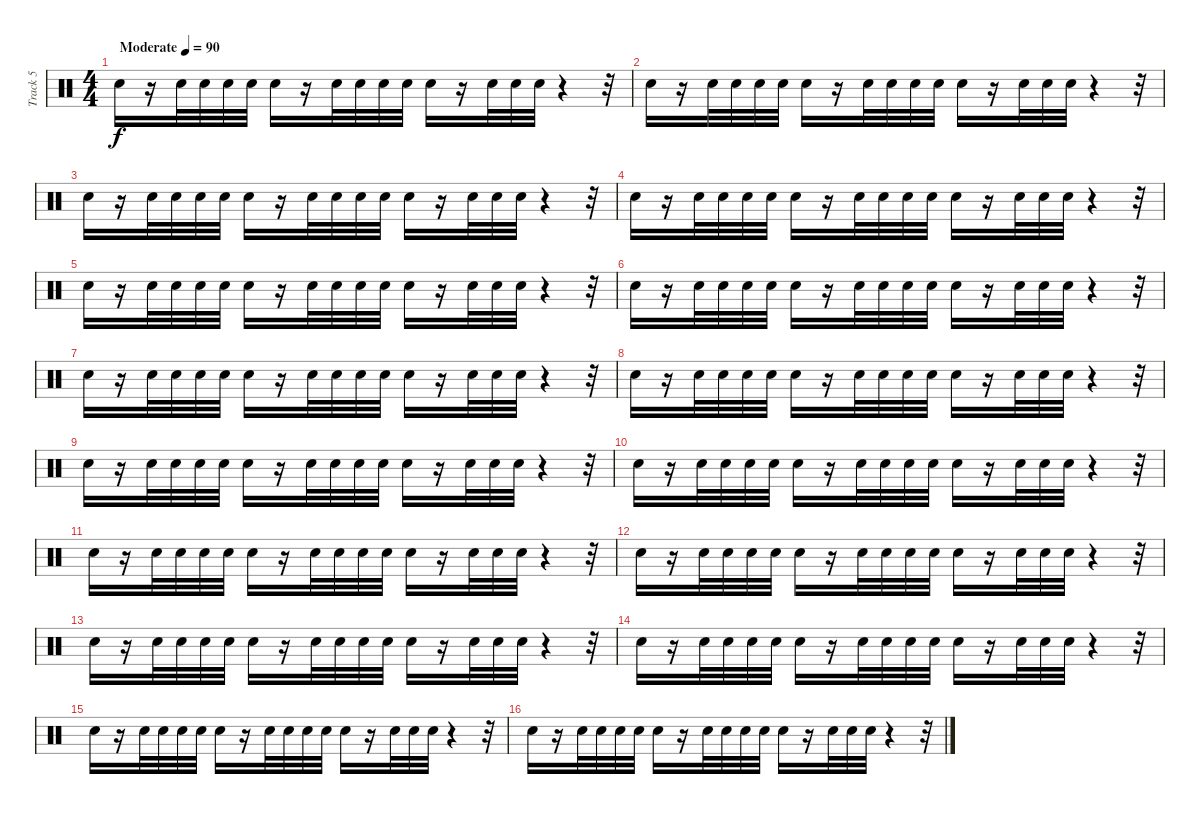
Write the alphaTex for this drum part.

\track ("Track 5" "Track 5") {instrument percussion}
\staff {score}
\articulation defaults
\ts (4 4)
\tempo (90 "Moderate")
\clef neutral
\ks c "Snare (hit) 2".16{dy f}
r.16 "Snare (hit) 2".32 "Snare (hit) 2".32 "Snare (hit) 2".32 "Snare (hit) 2".32 "Snare (hit) 2".16 r.16 "Snare (hit) 2".32 "Snare (hit) 2".32 "Snare (hit) 2".32 "Snare (hit) 2".32 "Snare (hit) 2".16 r.16 "Snare (hit) 2".32 "Snare (hit) 2".32 "Snare (hit) 2".32 r.4 r.32 |
"Snare (hit) 2".16 r.16 "Snare (hit) 2".32 "Snare (hit) 2".32 "Snare (hit) 2".32 "Snare (hit) 2".32 "Snare (hit) 2".16 r.16 "Snare (hit) 2".32 "Snare (hit) 2".32 "Snare (hit) 2".32 "Snare (hit) 2".32 "Snare (hit) 2".16 r.16 "Snare (hit) 2".32 "Snare (hit) 2".32 "Snare (hit) 2".32 r.4 r.32 |
"Snare (hit) 2".16 r.16 "Snare (hit) 2".32 "Snare (hit) 2".32 "Snare (hit) 2".32 "Snare (hit) 2".32 "Snare (hit) 2".16 r.16 "Snare (hit) 2".32 "Snare (hit) 2".32 "Snare (hit) 2".32 "Snare (hit) 2".32 "Snare (hit) 2".16 r.16 "Snare (hit) 2".32 "Snare (hit) 2".32 "Snare (hit) 2".32 r.4 r.32 |
"Snare (hit) 2".16 r.16 "Snare (hit) 2".32 "Snare (hit) 2".32 "Snare (hit) 2".32 "Snare (hit) 2".32 "Snare (hit) 2".16 r.16 "Snare (hit) 2".32 "Snare (hit) 2".32 "Snare (hit) 2".32 "Snare (hit) 2".32 "Snare (hit) 2".16 r.16 "Snare (hit) 2".32 "Snare (hit) 2".32 "Snare (hit) 2".32 r.4 r.32 |
"Snare (hit) 2".16 r.16 "Snare (hit) 2".32 "Snare (hit) 2".32 "Snare (hit) 2".32 "Snare (hit) 2".32 "Snare (hit) 2".16 r.16 "Snare (hit) 2".32 "Snare (hit) 2".32 "Snare (hit) 2".32 "Snare (hit) 2".32 "Snare (hit) 2".16 r.16 "Snare (hit) 2".32 "Snare (hit) 2".32 "Snare (hit) 2".32 r.4 r.32 |
"Snare (hit) 2".16 r.16 "Snare (hit) 2".32 "Snare (hit) 2".32 "Snare (hit) 2".32 "Snare (hit) 2".32 "Snare (hit) 2".16 r.16 "Snare (hit) 2".32 "Snare (hit) 2".32 "Snare (hit) 2".32 "Snare (hit) 2".32 "Snare (hit) 2".16 r.16 "Snare (hit) 2".32 "Snare (hit) 2".32 "Snare (hit) 2".32 r.4 r.32 |
"Snare (hit) 2".16 r.16 "Snare (hit) 2".32 "Snare (hit) 2".32 "Snare (hit) 2".32 "Snare (hit) 2".32 "Snare (hit) 2".16 r.16 "Snare (hit) 2".32 "Snare (hit) 2".32 "Snare (hit) 2".32 "Snare (hit) 2".32 "Snare (hit) 2".16 r.16 "Snare (hit) 2".32 "Snare (hit) 2".32 "Snare (hit) 2".32 r.4 r.32 |
"Snare (hit) 2".16 r.16 "Snare (hit) 2".32 "Snare (hit) 2".32 "Snare (hit) 2".32 "Snare (hit) 2".32 "Snare (hit) 2".16 r.16 "Snare (hit) 2".32 "Snare (hit) 2".32 "Snare (hit) 2".32 "Snare (hit) 2".32 "Snare (hit) 2".16 r.16 "Snare (hit) 2".32 "Snare (hit) 2".32 "Snare (hit) 2".32 r.4 r.32 |
"Snare (hit) 2".16 r.16 "Snare (hit) 2".32 "Snare (hit) 2".32 "Snare (hit) 2".32 "Snare (hit) 2".32 "Snare (hit) 2".16 r.16 "Snare (hit) 2".32 "Snare (hit) 2".32 "Snare (hit) 2".32 "Snare (hit) 2".32 "Snare (hit) 2".16 r.16 "Snare (hit) 2".32 "Snare (hit) 2".32 "Snare (hit) 2".32 r.4 r.32 |
"Snare (hit) 2".16 r.16 "Snare (hit) 2".32 "Snare (hit) 2".32 "Snare (hit) 2".32 "Snare (hit) 2".32 "Snare (hit) 2".16 r.16 "Snare (hit) 2".32 "Snare (hit) 2".32 "Snare (hit) 2".32 "Snare (hit) 2".32 "Snare (hit) 2".16 r.16 "Snare (hit) 2".32 "Snare (hit) 2".32 "Snare (hit) 2".32 r.4 r.32 |
"Snare (hit) 2".16 r.16 "Snare (hit) 2".32 "Snare (hit) 2".32 "Snare (hit) 2".32 "Snare (hit) 2".32 "Snare (hit) 2".16 r.16 "Snare (hit) 2".32 "Snare (hit) 2".32 "Snare (hit) 2".32 "Snare (hit) 2".32 "Snare (hit) 2".16 r.16 "Snare (hit) 2".32 "Snare (hit) 2".32 "Snare (hit) 2".32 r.4 r.32 |
"Snare (hit) 2".16 r.16 "Snare (hit) 2".32 "Snare (hit) 2".32 "Snare (hit) 2".32 "Snare (hit) 2".32 "Snare (hit) 2".16 r.16 "Snare (hit) 2".32 "Snare (hit) 2".32 "Snare (hit) 2".32 "Snare (hit) 2".32 "Snare (hit) 2".16 r.16 "Snare (hit) 2".32 "Snare (hit) 2".32 "Snare (hit) 2".32 r.4 r.32 |
"Snare (hit) 2".16 r.16 "Snare (hit) 2".32 "Snare (hit) 2".32 "Snare (hit) 2".32 "Snare (hit) 2".32 "Snare (hit) 2".16 r.16 "Snare (hit) 2".32 "Snare (hit) 2".32 "Snare (hit) 2".32 "Snare (hit) 2".32 "Snare (hit) 2".16 r.16 "Snare (hit) 2".32 "Snare (hit) 2".32 "Snare (hit) 2".32 r.4 r.32 |
"Snare (hit) 2".16 r.16 "Snare (hit) 2".32 "Snare (hit) 2".32 "Snare (hit) 2".32 "Snare (hit) 2".32 "Snare (hit) 2".16 r.16 "Snare (hit) 2".32 "Snare (hit) 2".32 "Snare (hit) 2".32 "Snare (hit) 2".32 "Snare (hit) 2".16 r.16 "Snare (hit) 2".32 "Snare (hit) 2".32 "Snare (hit) 2".32 r.4 r.32 |
"Snare (hit) 2".16 r.16 "Snare (hit) 2".32 "Snare (hit) 2".32 "Snare (hit) 2".32 "Snare (hit) 2".32 "Snare (hit) 2".16 r.16 "Snare (hit) 2".32 "Snare (hit) 2".32 "Snare (hit) 2".32 "Snare (hit) 2".32 "Snare (hit) 2".16 r.16 "Snare (hit) 2".32 "Snare (hit) 2".32 "Snare (hit) 2".32 r.4 r.32 |
"Snare (hit) 2".16 r.16 "Snare (hit) 2".32 "Snare (hit) 2".32 "Snare (hit) 2".32 "Snare (hit) 2".32 "Snare (hit) 2".16 r.16 "Snare (hit) 2".32 "Snare (hit) 2".32 "Snare (hit) 2".32 "Snare (hit) 2".32 "Snare (hit) 2".16 r.16 "Snare (hit) 2".32 "Snare (hit) 2".32 "Snare (hit) 2".32 r.4 r.32
